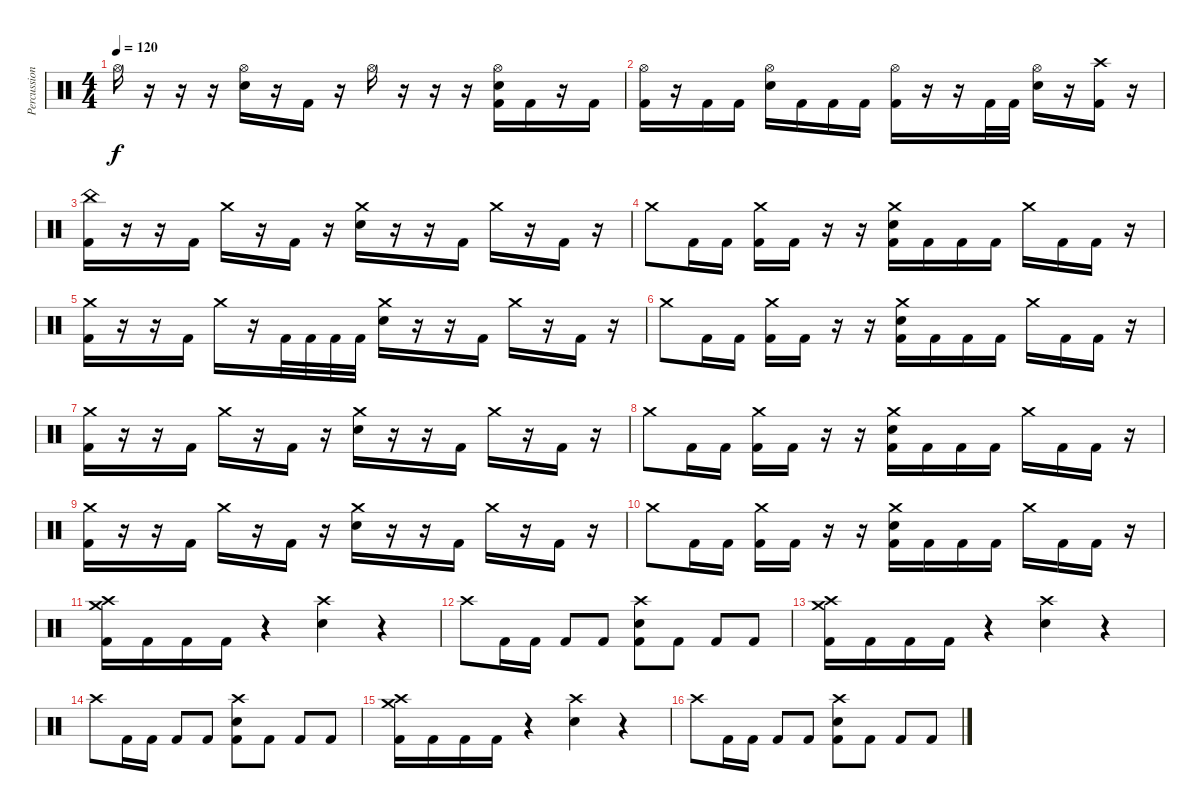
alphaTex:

\track ("Percussion" "Percussion") {instrument percussion}
\staff {score}
\articulation defaults
\ts (4 4)
\tempo 120
\clef neutral
\ks c "Hi-Hat (open)".16{dy f}
r.16 r.16 r.16 ("Hi-Hat (open)" "Electric Snare (hit)").16 r.16 "Kick (hit) 2".16 r.16 "Hi-Hat (open)".16 r.16 r.16 r.16 ("Hi-Hat (open)" "Electric Snare (hit)" "Kick (hit) 2").16 "Kick (hit) 2".16 r.16 "Kick (hit) 2".16 |
("Hi-Hat (open)" "Kick (hit) 2").16 r.16 "Kick (hit) 2".16 "Kick (hit) 2".16 ("Hi-Hat (open)" "Electric Snare (hit)").16 "Kick (hit) 2".16 "Kick (hit) 2".16 "Kick (hit) 2".16 ("Hi-Hat (open)" "Kick (hit) 2").16 r.16 r.16 "Kick (hit) 2".32 "Kick (hit) 2".32 ("Hi-Hat (open)" "Electric Snare (hit)").16 r.16 ("Crash high (hit)" "Kick (hit) 2").16 r.16 |
("China (hit)" "Kick (hit) 2").16 r.16 r.16 "Kick (hit) 2".16 "Crash medium (hit)".16 r.16 "Kick (hit) 2".16 r.16 ("Crash medium (hit)" "Electric Snare (hit)").16 r.16 r.16 "Kick (hit) 2".16 "Crash medium (hit)".16 r.16 "Kick (hit) 2".16 r.16 |
"Crash medium (hit)".8 "Kick (hit) 2".16 "Kick (hit) 2".16 ("Crash medium (hit)" "Kick (hit) 2").16 "Kick (hit) 2".16 r.16 r.16 ("Crash medium (hit)" "Electric Snare (hit)" "Kick (hit) 2").16 "Kick (hit) 2".16 "Kick (hit) 2".16 "Kick (hit) 2".16 "Crash medium (hit)".16 "Kick (hit) 2".16 "Kick (hit) 2".16 r.16 |
("Crash medium (hit)" "Kick (hit) 2").16 r.16 r.16 "Kick (hit) 2".16 "Crash medium (hit)".16 r.16 "Kick (hit) 2".32 "Kick (hit) 2".32 "Kick (hit) 2".32 "Kick (hit) 2".32 ("Crash medium (hit)" "Electric Snare (hit)").16 r.16 r.16 "Kick (hit) 2".16 "Crash medium (hit)".16 r.16 "Kick (hit) 2".16 r.16 |
"Crash medium (hit)".8 "Kick (hit) 2".16 "Kick (hit) 2".16 ("Crash medium (hit)" "Kick (hit) 2").16 "Kick (hit) 2".16 r.16 r.16 ("Crash medium (hit)" "Electric Snare (hit)" "Kick (hit) 2").16 "Kick (hit) 2".16 "Kick (hit) 2".16 "Kick (hit) 2".16 "Crash medium (hit)".16 "Kick (hit) 2".16 "Kick (hit) 2".16 r.16 |
("Crash medium (hit)" "Kick (hit) 2").16 r.16 r.16 "Kick (hit) 2".16 "Crash medium (hit)".16 r.16 "Kick (hit) 2".16 r.16 ("Crash medium (hit)" "Electric Snare (hit)").16 r.16 r.16 "Kick (hit) 2".16 "Crash medium (hit)".16 r.16 "Kick (hit) 2".16 r.16 |
"Crash medium (hit)".8 "Kick (hit) 2".16 "Kick (hit) 2".16 ("Crash medium (hit)" "Kick (hit) 2").16 "Kick (hit) 2".16 r.16 r.16 ("Crash medium (hit)" "Electric Snare (hit)" "Kick (hit) 2").16 "Kick (hit) 2".16 "Kick (hit) 2".16 "Kick (hit) 2".16 "Crash medium (hit)".16 "Kick (hit) 2".16 "Kick (hit) 2".16 r.16 |
("Crash medium (hit)" "Kick (hit) 2").16 r.16 r.16 "Kick (hit) 2".16 "Crash medium (hit)".16 r.16 "Kick (hit) 2".16 r.16 ("Crash medium (hit)" "Electric Snare (hit)").16 r.16 r.16 "Kick (hit) 2".16 "Crash medium (hit)".16 r.16 "Kick (hit) 2".16 r.16 |
"Crash medium (hit)".8 "Kick (hit) 2".16 "Kick (hit) 2".16 ("Crash medium (hit)" "Kick (hit) 2").16 "Kick (hit) 2".16 r.16 r.16 ("Crash medium (hit)" "Electric Snare (hit)" "Kick (hit) 2").16 "Kick (hit) 2".16 "Kick (hit) 2".16 "Kick (hit) 2".16 "Crash medium (hit)".16 "Kick (hit) 2".16 "Kick (hit) 2".16 r.16 |
("Crash medium (hit)" "Crash high (hit)" "Kick (hit) 2").16 "Kick (hit) 2".16 "Kick (hit) 2".16 "Kick (hit) 2".16 r.4 ("Crash high (hit)" "Electric Snare (hit)").4 r.4 |
"Crash high (hit)".8 "Kick (hit) 2".16 "Kick (hit) 2".16 "Kick (hit) 2".8 "Kick (hit) 2".8 ("Crash high (hit)" "Electric Snare (hit)" "Kick (hit) 2").8 "Kick (hit) 2".8 "Kick (hit) 2".8 "Kick (hit) 2".8 |
("Crash medium (hit)" "Crash high (hit)" "Kick (hit) 2").16 "Kick (hit) 2".16 "Kick (hit) 2".16 "Kick (hit) 2".16 r.4 ("Crash high (hit)" "Electric Snare (hit)").4 r.4 |
"Crash high (hit)".8 "Kick (hit) 2".16 "Kick (hit) 2".16 "Kick (hit) 2".8 "Kick (hit) 2".8 ("Crash high (hit)" "Electric Snare (hit)" "Kick (hit) 2").8 "Kick (hit) 2".8 "Kick (hit) 2".8 "Kick (hit) 2".8 |
("Crash medium (hit)" "Crash high (hit)" "Kick (hit) 2").16 "Kick (hit) 2".16 "Kick (hit) 2".16 "Kick (hit) 2".16 r.4 ("Crash high (hit)" "Electric Snare (hit)").4 r.4 |
"Crash high (hit)".8 "Kick (hit) 2".16 "Kick (hit) 2".16 "Kick (hit) 2".8 "Kick (hit) 2".8 ("Crash high (hit)" "Electric Snare (hit)" "Kick (hit) 2").8 "Kick (hit) 2".8 "Kick (hit) 2".8 "Kick (hit) 2".8
